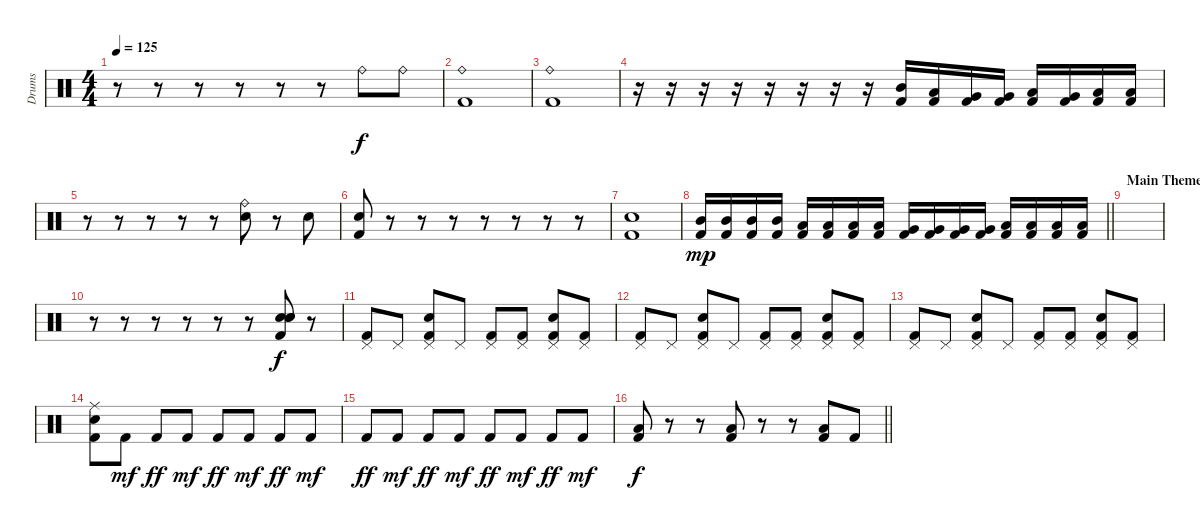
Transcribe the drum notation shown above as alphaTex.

\track ("Drums" "Drums") {instrument percussion}
\staff {score}
\articulation defaults
\ts (4 4)
\tempo 125
\clef neutral
\ks c
r.8{dy f} r.8 r.8 r.8 r.8 r.8 "Ride (bell)".8 "Ride (bell)".8 |
("Ride (bell)" "Kick (hit) 2").1 |
("Ride (bell)" "Kick (hit) 2").1 |
r.16 r.16 r.16 r.16 r.16 r.16 r.16 r.16 ("Mid Tom (hit)" "Kick (hit) 2").16 ("Low Tom (hit)" "Kick (hit) 2").16 ("Very Low Tom (hit)" "Kick (hit) 2").16 ("Very Low Tom (hit)" "Kick (hit) 2").16 ("Low Tom (hit)" "Kick (hit) 2").16 ("Very Low Tom (hit)" "Kick (hit) 2").16 ("Low Floor Tom (hit)" "Kick (hit) 2").16 ("Low Floor Tom (hit)" "Kick (hit) 2").16 |
r.8 r.8 r.8 r.8 r.8 ("Ride (bell)" "Snare (hit) 2").8 r.8 "Snare (hit) 2".8 |
("Snare (hit) 2" "Kick (hit) 2").8 r.8 r.8 r.8 r.8 r.8 r.8 r.8 |
("Snare (hit) 2" "Kick (hit) 2").1 |
\barLineRight lightlight
("Mid Tom (hit)" "Kick (hit) 2").16{dy mp} ("Mid Tom (hit)" "Kick (hit) 2").16 ("Mid Tom (hit)" "Kick (hit) 2").16 ("Mid Tom (hit)" "Kick (hit) 2").16 ("Low Tom (hit)" "Kick (hit) 2").16 ("Low Tom (hit)" "Kick (hit) 2").16 ("Low Tom (hit)" "Kick (hit) 2").16 ("Low Tom (hit)" "Kick (hit) 2").16 ("Very Low Tom (hit)" "Kick (hit) 2").16 ("Very Low Tom (hit)" "Kick (hit) 2").16 ("Very Low Tom (hit)" "Kick (hit) 2").16 ("Very Low Tom (hit)" "Kick (hit) 2").16 ("Low Floor Tom (hit)" "Kick (hit) 2").16 ("Low Floor Tom (hit)" "Kick (hit) 2").16 ("Low Floor Tom (hit)" "Kick (hit) 2").16 ("Low Floor Tom (hit)" "Kick (hit) 2").16 |
\section ("" "Main Theme")
|
r.8 r.8 r.8 r.8 r.8 r.8 ("Kick (hit) 2" "Electric Snare (hit)" "Electric Snare (hit)" "Snare (hit) 2").8{dy f} r.8 |
("Pedal Hi-Hat (hit)" "Kick (hit) 2").8 "Pedal Hi-Hat (hit)".8 ("Pedal Hi-Hat (hit)" "Snare (hit) 2" "Kick (hit) 2").8 "Pedal Hi-Hat (hit)".8 ("Pedal Hi-Hat (hit)" "Kick (hit) 2").8 ("Pedal Hi-Hat (hit)" "Kick (hit) 2").8 ("Pedal Hi-Hat (hit)" "Snare (hit) 2" "Kick (hit) 2").8 ("Pedal Hi-Hat (hit)" "Kick (hit) 2").8 |
("Pedal Hi-Hat (hit)" "Kick (hit) 2").8 "Pedal Hi-Hat (hit)".8 ("Pedal Hi-Hat (hit)" "Snare (hit) 2" "Kick (hit) 2").8 "Pedal Hi-Hat (hit)".8 ("Pedal Hi-Hat (hit)" "Kick (hit) 2").8 ("Pedal Hi-Hat (hit)" "Kick (hit) 2").8 ("Pedal Hi-Hat (hit)" "Snare (hit) 2" "Kick (hit) 2").8 ("Pedal Hi-Hat (hit)" "Kick (hit) 2").8 |
("Pedal Hi-Hat (hit)" "Kick (hit) 2").8 "Pedal Hi-Hat (hit)".8 ("Pedal Hi-Hat (hit)" "Snare (hit) 2" "Kick (hit) 2").8 "Pedal Hi-Hat (hit)".8 ("Pedal Hi-Hat (hit)" "Kick (hit) 2").8 ("Pedal Hi-Hat (hit)" "Kick (hit) 2").8 ("Pedal Hi-Hat (hit)" "Snare (hit) 2" "Kick (hit) 2").8 ("Pedal Hi-Hat (hit)" "Kick (hit) 2").8 |
("Ride (middle)" "Snare (hit) 2" "Kick (hit) 2").8 "Kick (hit) 2".8{dy mf} "Kick (hit) 2".8{dy ff} "Kick (hit) 2".8{dy mf} "Kick (hit) 2".8{dy ff} "Kick (hit) 2".8{dy mf} "Kick (hit) 2".8{dy ff} "Kick (hit) 2".8{dy mf} |
"Kick (hit) 2".8{dy ff} "Kick (hit) 2".8{dy mf} "Kick (hit) 2".8{dy ff} "Kick (hit) 2".8{dy mf} "Kick (hit) 2".8{dy ff} "Kick (hit) 2".8{dy mf} "Kick (hit) 2".8{dy ff} "Kick (hit) 2".8{dy mf} |
\barLineRight lightlight
("Low Tom (hit)" "Kick (hit) 2").8{dy f} r.8 r.8 ("Low Tom (hit)" "Kick (hit) 2").8 r.8 r.8 ("Low Tom (hit)" "Kick (hit) 2").8 "Kick (hit) 2".8
